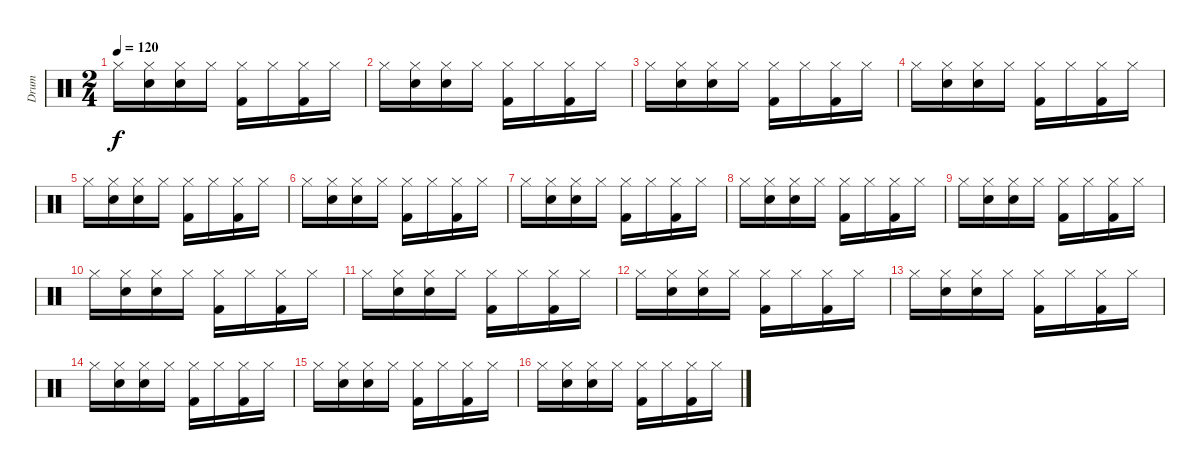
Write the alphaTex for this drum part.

\track ("Drum" "Drum") {instrument percussion}
\staff {score}
\articulation defaults
\ts (2 4)
\tempo 120
\clef neutral
\ks c "Hi-Hat (closed)".16{dy f}
("Hi-Hat (closed)" "Snare (hit) 2").16 ("Hi-Hat (closed)" "Snare (hit) 2").16 "Hi-Hat (closed)".16 ("Kick (hit) 2" "Hi-Hat (closed)").16 "Hi-Hat (closed)".16 ("Kick (hit) 2" "Hi-Hat (closed)").16 "Hi-Hat (closed)".16 |
"Hi-Hat (closed)".16 ("Hi-Hat (closed)" "Snare (hit) 2").16 ("Hi-Hat (closed)" "Snare (hit) 2").16 "Hi-Hat (closed)".16 ("Kick (hit) 2" "Hi-Hat (closed)").16 "Hi-Hat (closed)".16 ("Kick (hit) 2" "Hi-Hat (closed)").16 "Hi-Hat (closed)".16 |
"Hi-Hat (closed)".16 ("Hi-Hat (closed)" "Snare (hit) 2").16 ("Hi-Hat (closed)" "Snare (hit) 2").16 "Hi-Hat (closed)".16 ("Kick (hit) 2" "Hi-Hat (closed)").16 "Hi-Hat (closed)".16 ("Kick (hit) 2" "Hi-Hat (closed)").16 "Hi-Hat (closed)".16 |
"Hi-Hat (closed)".16 ("Hi-Hat (closed)" "Snare (hit) 2").16 ("Hi-Hat (closed)" "Snare (hit) 2").16 "Hi-Hat (closed)".16 ("Kick (hit) 2" "Hi-Hat (closed)").16 "Hi-Hat (closed)".16 ("Kick (hit) 2" "Hi-Hat (closed)").16 "Hi-Hat (closed)".16 |
"Hi-Hat (closed)".16 ("Hi-Hat (closed)" "Snare (hit) 2").16 ("Hi-Hat (closed)" "Snare (hit) 2").16 "Hi-Hat (closed)".16 ("Kick (hit) 2" "Hi-Hat (closed)").16 "Hi-Hat (closed)".16 ("Kick (hit) 2" "Hi-Hat (closed)").16 "Hi-Hat (closed)".16 |
"Hi-Hat (closed)".16 ("Hi-Hat (closed)" "Snare (hit) 2").16 ("Hi-Hat (closed)" "Snare (hit) 2").16 "Hi-Hat (closed)".16 ("Kick (hit) 2" "Hi-Hat (closed)").16 "Hi-Hat (closed)".16 ("Kick (hit) 2" "Hi-Hat (closed)").16 "Hi-Hat (closed)".16 |
"Hi-Hat (closed)".16 ("Hi-Hat (closed)" "Snare (hit) 2").16 ("Hi-Hat (closed)" "Snare (hit) 2").16 "Hi-Hat (closed)".16 ("Kick (hit) 2" "Hi-Hat (closed)").16 "Hi-Hat (closed)".16 ("Kick (hit) 2" "Hi-Hat (closed)").16 "Hi-Hat (closed)".16 |
"Hi-Hat (closed)".16 ("Hi-Hat (closed)" "Snare (hit) 2").16 ("Hi-Hat (closed)" "Snare (hit) 2").16 "Hi-Hat (closed)".16 ("Kick (hit) 2" "Hi-Hat (closed)").16 "Hi-Hat (closed)".16 ("Kick (hit) 2" "Hi-Hat (closed)").16 "Hi-Hat (closed)".16 |
"Hi-Hat (closed)".16 ("Hi-Hat (closed)" "Snare (hit) 2").16 ("Hi-Hat (closed)" "Snare (hit) 2").16 "Hi-Hat (closed)".16 ("Kick (hit) 2" "Hi-Hat (closed)").16 "Hi-Hat (closed)".16 ("Kick (hit) 2" "Hi-Hat (closed)").16 "Hi-Hat (closed)".16 |
"Hi-Hat (closed)".16 ("Hi-Hat (closed)" "Snare (hit) 2").16 ("Hi-Hat (closed)" "Snare (hit) 2").16 "Hi-Hat (closed)".16 ("Kick (hit) 2" "Hi-Hat (closed)").16 "Hi-Hat (closed)".16 ("Kick (hit) 2" "Hi-Hat (closed)").16 "Hi-Hat (closed)".16 |
"Hi-Hat (closed)".16 ("Hi-Hat (closed)" "Snare (hit) 2").16 ("Hi-Hat (closed)" "Snare (hit) 2").16 "Hi-Hat (closed)".16 ("Kick (hit) 2" "Hi-Hat (closed)").16 "Hi-Hat (closed)".16 ("Kick (hit) 2" "Hi-Hat (closed)").16 "Hi-Hat (closed)".16 |
"Hi-Hat (closed)".16 ("Hi-Hat (closed)" "Snare (hit) 2").16 ("Hi-Hat (closed)" "Snare (hit) 2").16 "Hi-Hat (closed)".16 ("Kick (hit) 2" "Hi-Hat (closed)").16 "Hi-Hat (closed)".16 ("Kick (hit) 2" "Hi-Hat (closed)").16 "Hi-Hat (closed)".16 |
"Hi-Hat (closed)".16 ("Hi-Hat (closed)" "Snare (hit) 2").16 ("Hi-Hat (closed)" "Snare (hit) 2").16 "Hi-Hat (closed)".16 ("Kick (hit) 2" "Hi-Hat (closed)").16 "Hi-Hat (closed)".16 ("Kick (hit) 2" "Hi-Hat (closed)").16 "Hi-Hat (closed)".16 |
"Hi-Hat (closed)".16 ("Hi-Hat (closed)" "Snare (hit) 2").16 ("Hi-Hat (closed)" "Snare (hit) 2").16 "Hi-Hat (closed)".16 ("Kick (hit) 2" "Hi-Hat (closed)").16 "Hi-Hat (closed)".16 ("Kick (hit) 2" "Hi-Hat (closed)").16 "Hi-Hat (closed)".16 |
"Hi-Hat (closed)".16 ("Hi-Hat (closed)" "Snare (hit) 2").16 ("Hi-Hat (closed)" "Snare (hit) 2").16 "Hi-Hat (closed)".16 ("Kick (hit) 2" "Hi-Hat (closed)").16 "Hi-Hat (closed)".16 ("Kick (hit) 2" "Hi-Hat (closed)").16 "Hi-Hat (closed)".16 |
"Hi-Hat (closed)".16 ("Hi-Hat (closed)" "Snare (hit) 2").16 ("Hi-Hat (closed)" "Snare (hit) 2").16 "Hi-Hat (closed)".16 ("Kick (hit) 2" "Hi-Hat (closed)").16 "Hi-Hat (closed)".16 ("Kick (hit) 2" "Hi-Hat (closed)").16 "Hi-Hat (closed)".16
